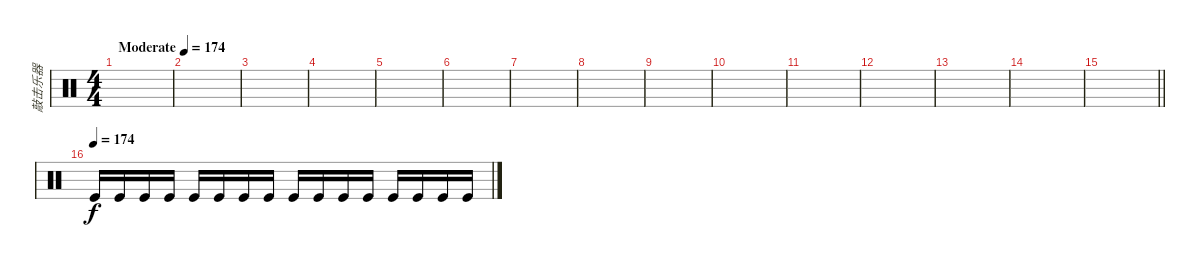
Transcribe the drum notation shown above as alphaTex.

\track ("敲击乐器" "敲击乐器") {instrument percussion}
\staff {score}
\articulation defaults
\ts (4 4)
\tempo (174 "Moderate")
\tempo 115
\tempo (174 "Moderate")
\clef neutral
\ks c
|
|
|
|
|
|
|
|
|
|
|
|
|
|
\barLineRight lightlight
|
\tempo (174)
"Kick (hit)".16 "Kick (hit)".16 "Kick (hit)".16 "Kick (hit)".16 "Kick (hit)".16 "Kick (hit)".16 "Kick (hit)".16 "Kick (hit)".16 "Kick (hit)".16 "Kick (hit)".16 "Kick (hit)".16 "Kick (hit)".16 "Kick (hit)".16 "Kick (hit)".16 "Kick (hit)".16 "Kick (hit)".16
